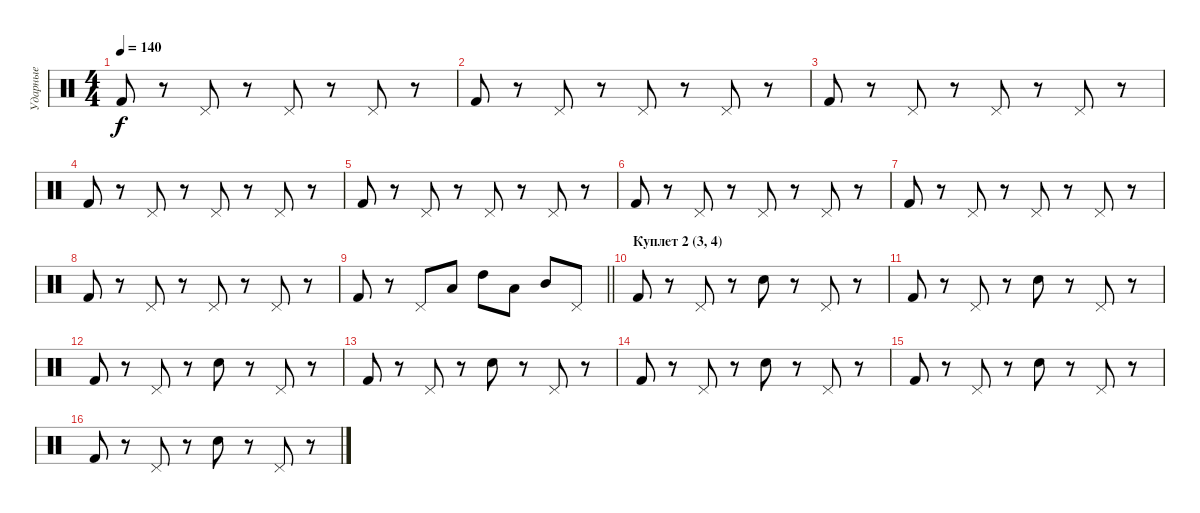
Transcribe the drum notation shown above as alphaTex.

\track ("Ударные" "Ударные") {instrument percussion}
\staff {score}
\articulation defaults
\ts (4 4)
\tempo 140
\clef neutral
\ks c "Kick (hit) 2".8{dy f}
r.8 "Pedal Hi-Hat (hit)".8 r.8 "Pedal Hi-Hat (hit)".8 r.8 "Pedal Hi-Hat (hit)".8 r.8 |
"Kick (hit) 2".8 r.8 "Pedal Hi-Hat (hit)".8 r.8 "Pedal Hi-Hat (hit)".8 r.8 "Pedal Hi-Hat (hit)".8 r.8 |
"Kick (hit) 2".8 r.8 "Pedal Hi-Hat (hit)".8 r.8 "Pedal Hi-Hat (hit)".8 r.8 "Pedal Hi-Hat (hit)".8 r.8 |
"Kick (hit) 2".8 r.8 "Pedal Hi-Hat (hit)".8 r.8 "Pedal Hi-Hat (hit)".8 r.8 "Pedal Hi-Hat (hit)".8 r.8 |
"Kick (hit) 2".8 r.8 "Pedal Hi-Hat (hit)".8 r.8 "Pedal Hi-Hat (hit)".8 r.8 "Pedal Hi-Hat (hit)".8 r.8 |
"Kick (hit) 2".8 r.8 "Pedal Hi-Hat (hit)".8 r.8 "Pedal Hi-Hat (hit)".8 r.8 "Pedal Hi-Hat (hit)".8 r.8 |
"Kick (hit) 2".8 r.8 "Pedal Hi-Hat (hit)".8 r.8 "Pedal Hi-Hat (hit)".8 r.8 "Pedal Hi-Hat (hit)".8 r.8 |
"Kick (hit) 2".8 r.8 "Pedal Hi-Hat (hit)".8 r.8 "Pedal Hi-Hat (hit)".8 r.8 "Pedal Hi-Hat (hit)".8 r.8 |
\barLineRight lightlight "Kick (hit) 2".8
r.8 "Pedal Hi-Hat (hit)".8 "Low Tom (hit)".8 "High Tom (hit)".8 "Low Tom (hit)".8 "Mid Tom (hit)".8 "Pedal Hi-Hat (hit)".8 |
\section ("" "Куплет 2 (3, 4)")
"Kick (hit) 2".8 r.8 "Pedal Hi-Hat (hit)".8 r.8 "Snare (hit) 2".8 r.8 "Pedal Hi-Hat (hit)".8 r.8 |
"Kick (hit) 2".8 r.8 "Pedal Hi-Hat (hit)".8 r.8 "Snare (hit) 2".8 r.8 "Pedal Hi-Hat (hit)".8 r.8 |
"Kick (hit) 2".8 r.8 "Pedal Hi-Hat (hit)".8 r.8 "Snare (hit) 2".8 r.8 "Pedal Hi-Hat (hit)".8 r.8 |
"Kick (hit) 2".8 r.8 "Pedal Hi-Hat (hit)".8 r.8 "Snare (hit) 2".8 r.8 "Pedal Hi-Hat (hit)".8 r.8 |
"Kick (hit) 2".8 r.8 "Pedal Hi-Hat (hit)".8 r.8 "Snare (hit) 2".8 r.8 "Pedal Hi-Hat (hit)".8 r.8 |
"Kick (hit) 2".8 r.8 "Pedal Hi-Hat (hit)".8 r.8 "Snare (hit) 2".8 r.8 "Pedal Hi-Hat (hit)".8 r.8 |
"Kick (hit) 2".8 r.8 "Pedal Hi-Hat (hit)".8 r.8 "Snare (hit) 2".8 r.8 "Pedal Hi-Hat (hit)".8 r.8
